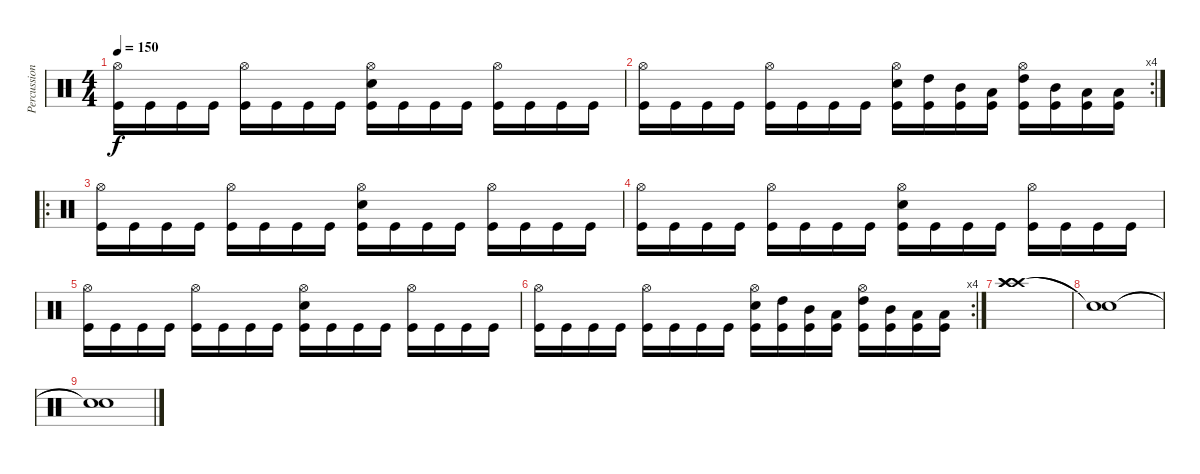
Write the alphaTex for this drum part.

\track ("Percussion" "Percussion") {instrument percussion}
\staff {score}
\articulation defaults
\ts (4 4)
\tempo 150
\clef neutral
\ks c
("Hi-Hat (open)" "Kick (hit)").16{dy f} "Kick (hit)".16 "Kick (hit)".16 "Kick (hit)".16 ("Hi-Hat (open)" "Kick (hit)").16 "Kick (hit)".16 "Kick (hit)".16 "Kick (hit)".16 ("Hi-Hat (open)" "Electric Snare (hit)" "Kick (hit)").16 "Kick (hit)".16 "Kick (hit)".16 "Kick (hit)".16 ("Hi-Hat (open)" "Kick (hit)").16 "Kick (hit)".16 "Kick (hit)".16 "Kick (hit)".16 |
\rc 4
("Hi-Hat (open)" "Kick (hit)").16 "Kick (hit)".16 "Kick (hit)".16 "Kick (hit)".16 ("Hi-Hat (open)" "Kick (hit)").16 "Kick (hit)".16 "Kick (hit)".16 "Kick (hit)".16 ("Hi-Hat (open)" "Electric Snare (hit)" "Kick (hit)").16 ("High Tom (hit)" "Kick (hit)").16 ("Mid Tom (hit)" "Kick (hit)").16 ("Low Tom (hit)" "Kick (hit)").16 ("Hi-Hat (open)" "High Tom (hit)" "Kick (hit)").16 ("Mid Tom (hit)" "Kick (hit)").16 ("Low Tom (hit)" "Kick (hit)").16 ("Low Tom (hit)" "Kick (hit)").16 |
\ro
("Hi-Hat (open)" "Kick (hit)").16 "Kick (hit)".16 "Kick (hit)".16 "Kick (hit)".16 ("Hi-Hat (open)" "Kick (hit)").16 "Kick (hit)".16 "Kick (hit)".16 "Kick (hit)".16 ("Hi-Hat (open)" "Electric Snare (hit)" "Kick (hit)").16 "Kick (hit)".16 "Kick (hit)".16 "Kick (hit)".16 ("Hi-Hat (open)" "Kick (hit)").16 "Kick (hit)".16 "Kick (hit)".16 "Kick (hit)".16 |
("Hi-Hat (open)" "Kick (hit)").16 "Kick (hit)".16 "Kick (hit)".16 "Kick (hit)".16 ("Hi-Hat (open)" "Kick (hit)").16 "Kick (hit)".16 "Kick (hit)".16 "Kick (hit)".16 ("Hi-Hat (open)" "Electric Snare (hit)" "Kick (hit)").16 "Kick (hit)".16 "Kick (hit)".16 "Kick (hit)".16 ("Hi-Hat (open)" "Kick (hit)").16 "Kick (hit)".16 "Kick (hit)".16 "Kick (hit)".16 |
("Hi-Hat (open)" "Kick (hit)").16 "Kick (hit)".16 "Kick (hit)".16 "Kick (hit)".16 ("Hi-Hat (open)" "Kick (hit)").16 "Kick (hit)".16 "Kick (hit)".16 "Kick (hit)".16 ("Hi-Hat (open)" "Electric Snare (hit)" "Kick (hit)").16 "Kick (hit)".16 "Kick (hit)".16 "Kick (hit)".16 ("Hi-Hat (open)" "Kick (hit)").16 "Kick (hit)".16 "Kick (hit)".16 "Kick (hit)".16 |
\rc 4
("Hi-Hat (open)" "Kick (hit)").16 "Kick (hit)".16 "Kick (hit)".16 "Kick (hit)".16 ("Hi-Hat (open)" "Kick (hit)").16 "Kick (hit)".16 "Kick (hit)".16 "Kick (hit)".16 ("Hi-Hat (open)" "Electric Snare (hit)" "Kick (hit)").16 ("High Tom (hit)" "Kick (hit)").16 ("Mid Tom (hit)" "Kick (hit)").16 ("Low Tom (hit)" "Kick (hit)").16 ("Hi-Hat (open)" "High Tom (hit)" "Kick (hit)").16 ("Mid Tom (hit)" "Kick (hit)").16 ("Low Tom (hit)" "Kick (hit)").16 ("Low Tom (hit)" "Kick (hit)").16 |
("Crash high (hit)" "Crash high (hit)" "Crash high (hit)").1 |
("Snare (hit)"{t} "Snare (hit)"{t}).1 |
("Snare (hit)"{t} "Snare (hit)"{t}).1
